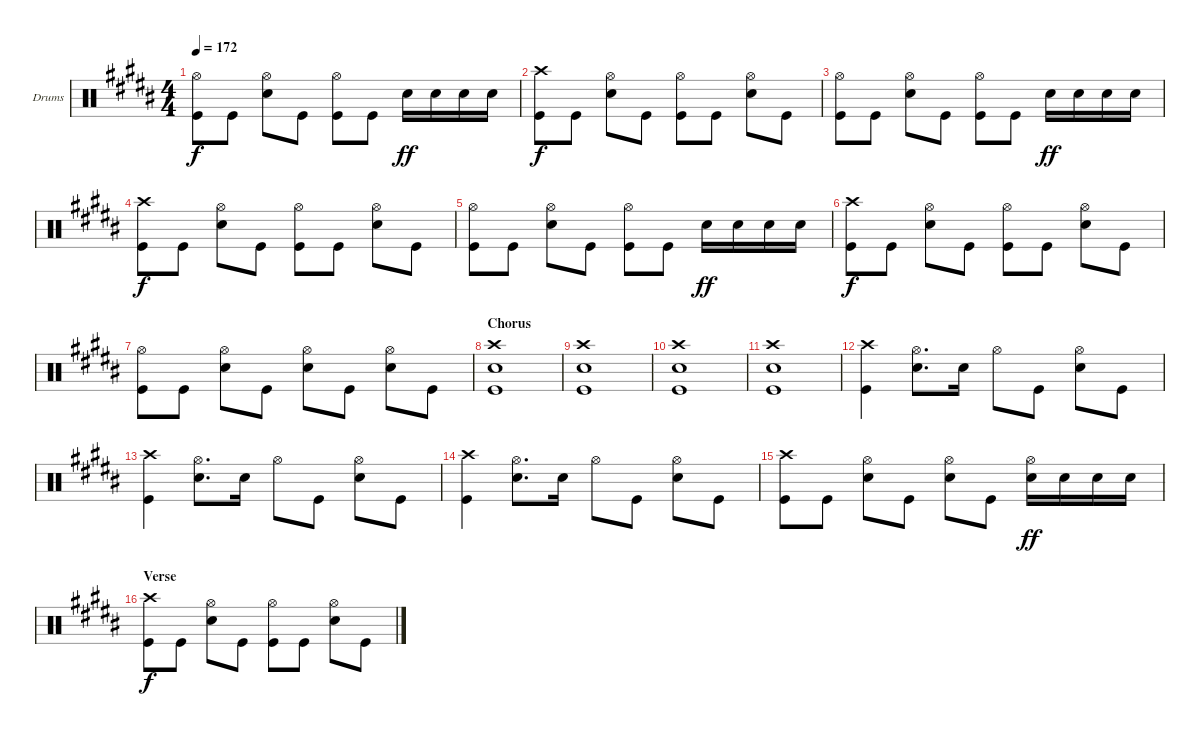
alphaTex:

\defaultSystemsLayout 4
\bracketExtendMode groupsimilarinstruments
\firstSystemTrackNameOrientation horizontal
\otherSystemsTrackNameOrientation horizontal
\track ("Drumkit" "Drums") {instrument percussion}
\staff {score}
\articulation defaults
\ts (4 4)
\tempo 172
\clef neutral
\scale
1.07314
\ks b
("Hi-Hat (open)" "Kick (hit)").8{dy f} "Kick (hit)".8 ("Hi-Hat (open)" "Snare (hit) 2").8 "Kick (hit)".8 ("Hi-Hat (open)" "Kick (hit)").8 "Kick (hit)".8 "Snare (hit) 2".16{dy ff} "Snare (hit) 2".16 "Snare (hit) 2".16 "Snare (hit) 2".16 |
\scale
0.92686 ("Crash high (hit)" "Kick (hit)").8{dy f} "Kick (hit)".8 ("Hi-Hat (open)" "Snare (hit) 2").8 "Kick (hit)".8 ("Hi-Hat (open)" "Kick (hit)").8 "Kick (hit)".8 ("Hi-Hat (open)" "Snare (hit) 2").8 "Kick (hit)".8 |
\scale
1.07314 ("Hi-Hat (open)" "Kick (hit)").8 "Kick (hit)".8 ("Hi-Hat (open)" "Snare (hit) 2").8 "Kick (hit)".8 ("Hi-Hat (open)" "Kick (hit)").8 "Kick (hit)".8 "Snare (hit) 2".16{dy ff} "Snare (hit) 2".16 "Snare (hit) 2".16 "Snare (hit) 2".16 |
\scale
0.92686 ("Crash high (hit)" "Kick (hit)").8{dy f} "Kick (hit)".8 ("Hi-Hat (open)" "Snare (hit) 2").8 "Kick (hit)".8 ("Hi-Hat (open)" "Kick (hit)").8 "Kick (hit)".8 ("Hi-Hat (open)" "Snare (hit) 2").8 "Kick (hit)".8 |
\scale
1.07314 ("Hi-Hat (open)" "Kick (hit)").8 "Kick (hit)".8 ("Hi-Hat (open)" "Snare (hit) 2").8 "Kick (hit)".8 ("Hi-Hat (open)" "Kick (hit)").8 "Kick (hit)".8 "Snare (hit) 2".16{dy ff} "Snare (hit) 2".16 "Snare (hit) 2".16 "Snare (hit) 2".16 |
\scale
0.92686 ("Crash high (hit)" "Kick (hit)").8{dy f} "Kick (hit)".8 ("Hi-Hat (open)" "Snare (hit) 2").8 "Kick (hit)".8 ("Hi-Hat (open)" "Kick (hit)").8 "Kick (hit)".8 ("Hi-Hat (open)" "Snare (hit) 2").8 "Kick (hit)".8 |
\scale
1.07314 ("Hi-Hat (open)" "Kick (hit)").8 "Kick (hit)".8 ("Hi-Hat (open)" "Snare (hit) 2").8 "Kick (hit)".8 ("Hi-Hat (open)" "Snare (hit) 2").8 "Kick (hit)".8 ("Hi-Hat (open)" "Snare (hit) 2").8 "Kick (hit)".8 |
\section ("" "Chorus")
\scale
0.92686 ("Crash high (hit)" "Snare (hit) 2" "Kick (hit)").1 |
\scale
1.07314 ("Crash high (hit)" "Snare (hit) 2" "Kick (hit)").1 |
\scale
0.92686 ("Crash high (hit)" "Snare (hit) 2" "Kick (hit)").1 |
\scale
1.07314 ("Crash high (hit)" "Snare (hit) 2" "Kick (hit)").1 |
\scale
0.92686 ("Crash high (hit)" "Kick (hit)").4 ("Hi-Hat (open)" "Snare (hit) 2").8{d} "Snare (hit) 2".16 "Hi-Hat (open)".8 "Kick (hit)".8 ("Hi-Hat (open)" "Snare (hit) 2").8 "Kick (hit)".8 |
\scale
1.07314 ("Crash high (hit)" "Kick (hit)").4 ("Hi-Hat (open)" "Snare (hit) 2").8{d} "Snare (hit) 2".16 "Hi-Hat (open)".8 "Kick (hit)".8 ("Hi-Hat (open)" "Snare (hit) 2").8 "Kick (hit)".8 |
\scale
0.92686 ("Crash high (hit)" "Kick (hit)").4 ("Hi-Hat (open)" "Snare (hit) 2").8{d} "Snare (hit) 2".16 "Hi-Hat (open)".8 "Kick (hit)".8 ("Hi-Hat (open)" "Snare (hit) 2").8 "Kick (hit)".8 |
\scale
1.07314 ("Crash high (hit)" "Kick (hit)").8 "Kick (hit)".8 ("Hi-Hat (open)" "Snare (hit) 2").8 "Kick (hit)".8 ("Hi-Hat (open)" "Snare (hit) 2").8 "Kick (hit)".8 ("Hi-Hat (open)" "Snare (hit) 2").16{dy ff} "Snare (hit) 2".16 "Snare (hit) 2".16 "Snare (hit) 2".16 |
\section ("" "Verse")
\scale
0.92686 ("Crash high (hit)" "Kick (hit)").8{dy f} "Kick (hit)".8 ("Hi-Hat (open)" "Snare (hit) 2").8 "Kick (hit)".8 ("Hi-Hat (open)" "Kick (hit)").8 "Kick (hit)".8 ("Hi-Hat (open)" "Snare (hit) 2").8 "Kick (hit)".8
